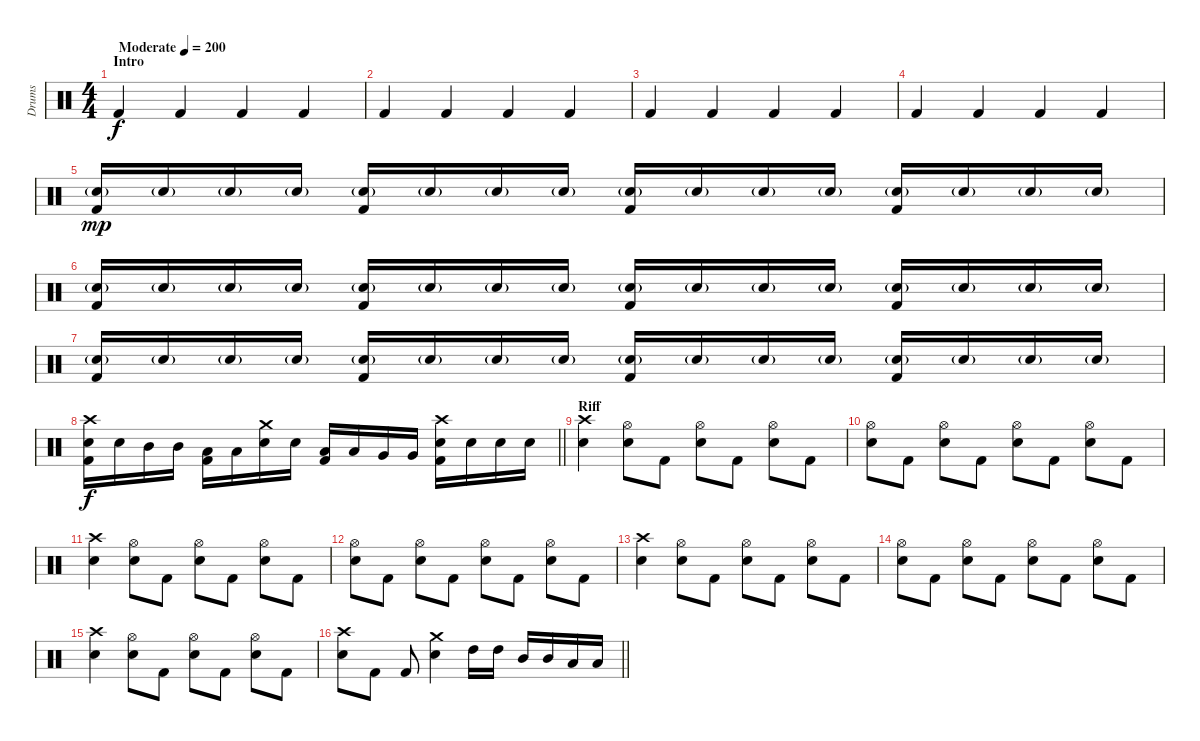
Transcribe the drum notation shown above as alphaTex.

\track ("Drums" "Drums") {instrument percussion}
\staff {score}
\articulation defaults
\ts (4 4)
\section ("" "Intro")
\tempo (200 "Moderate")
\clef neutral
\ks c "Kick (hit) 2".4{dy f} "Kick (hit) 2".4 "Kick (hit) 2".4 "Kick (hit) 2".4
|
"Kick (hit) 2".4 "Kick (hit) 2".4 "Kick (hit) 2".4 "Kick (hit) 2".4 |
"Kick (hit) 2".4 "Kick (hit) 2".4 "Kick (hit) 2".4 "Kick (hit) 2".4 |
"Kick (hit) 2".4 "Kick (hit) 2".4 "Kick (hit) 2".4 "Kick (hit) 2".4 |
("Snare (hit) 2"{g} "Kick (hit) 2").16{dy mp} "Snare (hit) 2"{g}.16 "Snare (hit) 2"{g}.16 "Snare (hit) 2"{g}.16 ("Snare (hit) 2"{g} "Kick (hit) 2").16 "Snare (hit) 2"{g}.16 "Snare (hit) 2"{g}.16 "Snare (hit) 2"{g}.16 ("Snare (hit) 2"{g} "Kick (hit) 2").16 "Snare (hit) 2"{g}.16 "Snare (hit) 2"{g}.16 "Snare (hit) 2"{g}.16 ("Snare (hit) 2"{g} "Kick (hit) 2").16 "Snare (hit) 2"{g}.16 "Snare (hit) 2"{g}.16 "Snare (hit) 2"{g}.16 |
("Snare (hit) 2"{g} "Kick (hit) 2").16 "Snare (hit) 2"{g}.16 "Snare (hit) 2"{g}.16 "Snare (hit) 2"{g}.16 ("Snare (hit) 2"{g} "Kick (hit) 2").16 "Snare (hit) 2"{g}.16 "Snare (hit) 2"{g}.16 "Snare (hit) 2"{g}.16 ("Snare (hit) 2"{g} "Kick (hit) 2").16 "Snare (hit) 2"{g}.16 "Snare (hit) 2"{g}.16 "Snare (hit) 2"{g}.16 ("Snare (hit) 2"{g} "Kick (hit) 2").16 "Snare (hit) 2"{g}.16 "Snare (hit) 2"{g}.16 "Snare (hit) 2"{g}.16 |
("Snare (hit) 2"{g} "Kick (hit) 2").16 "Snare (hit) 2"{g}.16 "Snare (hit) 2"{g}.16 "Snare (hit) 2"{g}.16 ("Snare (hit) 2"{g} "Kick (hit) 2").16 "Snare (hit) 2"{g}.16 "Snare (hit) 2"{g}.16 "Snare (hit) 2"{g}.16 ("Snare (hit) 2"{g} "Kick (hit) 2").16 "Snare (hit) 2"{g}.16 "Snare (hit) 2"{g}.16 "Snare (hit) 2"{g}.16 ("Snare (hit) 2"{g} "Kick (hit) 2").16 "Snare (hit) 2"{g}.16 "Snare (hit) 2"{g}.16 "Snare (hit) 2"{g}.16 |
\barLineRight lightlight
("Crash high (hit)" "Snare (hit) 2" "Kick (hit) 2").16{dy f} "Snare (hit) 2".16 "Mid Tom (hit)".16 "Mid Tom (hit)".16 ("Low Tom (hit)" "Kick (hit) 2").16 "Low Tom (hit)".16 ("Crash medium (hit)" "Snare (hit) 2").16 "Snare (hit) 2".16 ("Low Tom (hit)" "Kick (hit) 2").16 "Low Tom (hit)".16 "Very Low Tom (hit)".16 "Very Low Tom (hit)".16 ("Crash high (hit)" "Snare (hit) 2" "Kick (hit) 2").16 "Snare (hit) 2".16 "Snare (hit) 2".16 "Snare (hit) 2".16 |
\section ("" "Riff")
("Crash high (hit)" "Snare (hit) 2").4 ("Hi-Hat (open)" "Snare (hit) 2").8 "Kick (hit) 2".8 ("Hi-Hat (open)" "Snare (hit) 2").8 "Kick (hit) 2".8 ("Hi-Hat (open)" "Snare (hit) 2").8 "Kick (hit) 2".8 |
("Hi-Hat (open)" "Snare (hit) 2").8 "Kick (hit) 2".8 ("Hi-Hat (open)" "Snare (hit) 2").8 "Kick (hit) 2".8 ("Hi-Hat (open)" "Snare (hit) 2").8 "Kick (hit) 2".8 ("Hi-Hat (open)" "Snare (hit) 2").8 "Kick (hit) 2".8 |
("Crash high (hit)" "Snare (hit) 2").4 ("Hi-Hat (open)" "Snare (hit) 2").8 "Kick (hit) 2".8 ("Hi-Hat (open)" "Snare (hit) 2").8 "Kick (hit) 2".8 ("Hi-Hat (open)" "Snare (hit) 2").8 "Kick (hit) 2".8 |
("Hi-Hat (open)" "Snare (hit) 2").8 "Kick (hit) 2".8 ("Hi-Hat (open)" "Snare (hit) 2").8 "Kick (hit) 2".8 ("Hi-Hat (open)" "Snare (hit) 2").8 "Kick (hit) 2".8 ("Hi-Hat (open)" "Snare (hit) 2").8 "Kick (hit) 2".8 |
("Crash high (hit)" "Snare (hit) 2").4 ("Hi-Hat (open)" "Snare (hit) 2").8 "Kick (hit) 2".8 ("Hi-Hat (open)" "Snare (hit) 2").8 "Kick (hit) 2".8 ("Hi-Hat (open)" "Snare (hit) 2").8 "Kick (hit) 2".8 |
("Hi-Hat (open)" "Snare (hit) 2").8 "Kick (hit) 2".8 ("Hi-Hat (open)" "Snare (hit) 2").8 "Kick (hit) 2".8 ("Hi-Hat (open)" "Snare (hit) 2").8 "Kick (hit) 2".8 ("Hi-Hat (open)" "Snare (hit) 2").8 "Kick (hit) 2".8 |
("Crash high (hit)" "Snare (hit) 2").4 ("Hi-Hat (open)" "Snare (hit) 2").8 "Kick (hit) 2".8 ("Hi-Hat (open)" "Snare (hit) 2").8 "Kick (hit) 2".8 ("Hi-Hat (open)" "Snare (hit) 2").8 "Kick (hit) 2".8 |
\barLineRight lightlight
("Crash high (hit)" "Snare (hit) 2").8 "Kick (hit) 2".8 "Kick (hit) 2".8 ("Crash medium (hit)" "Snare (hit) 2").4 "High Tom (hit)".16 "High Tom (hit)".16 "Mid Tom (hit)".16 "Mid Tom (hit)".16 "Low Tom (hit)".16 "Low Tom (hit)".16
